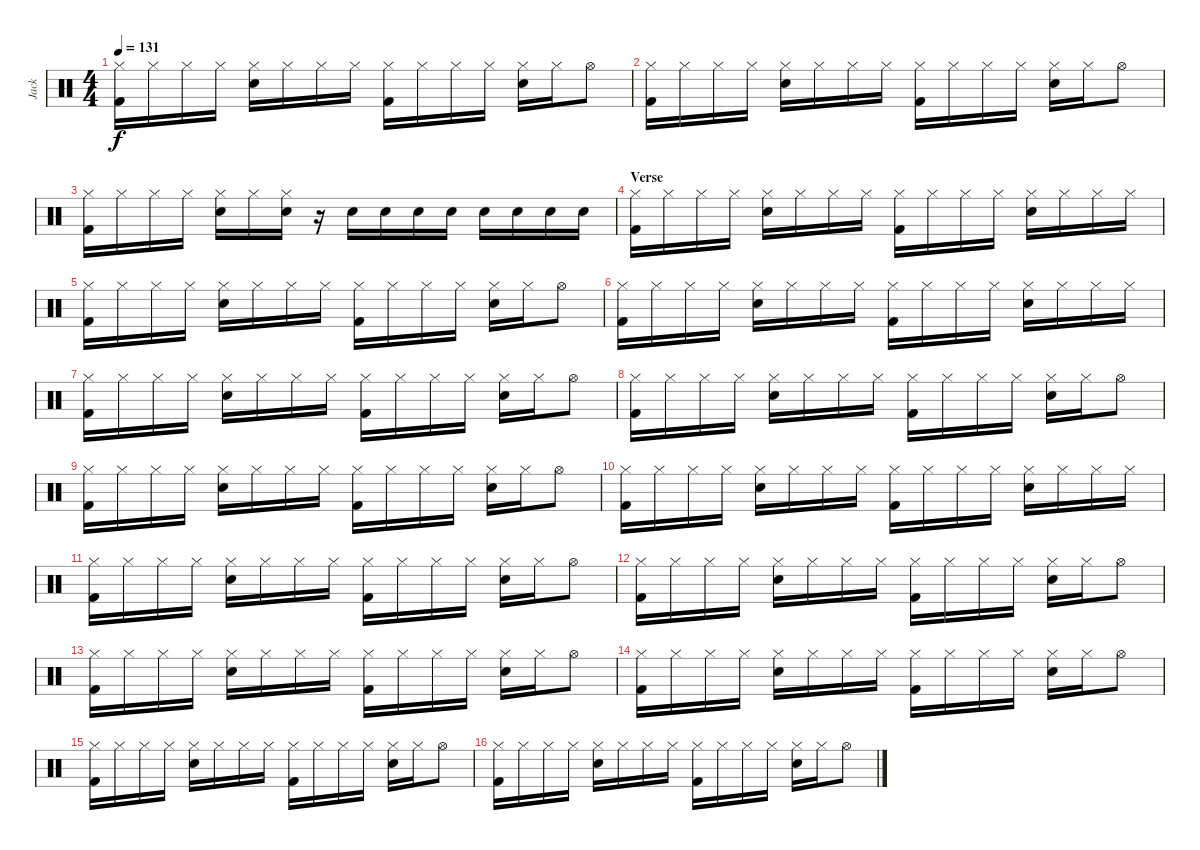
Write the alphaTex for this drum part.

\track ("Jack" "Jack") {instrument percussion}
\staff {score}
\articulation defaults
\ts (4 4)
\tempo 131
\clef neutral
\ks c
("Hi-Hat (closed)" "Kick (hit) 2").16{dy f} "Hi-Hat (closed)".16 "Hi-Hat (closed)".16 "Hi-Hat (closed)".16 ("Hi-Hat (closed)" "Electric Snare (hit)").16 "Hi-Hat (closed)".16 "Hi-Hat (closed)".16 "Hi-Hat (closed)".16 ("Hi-Hat (closed)" "Kick (hit) 2").16 "Hi-Hat (closed)".16 "Hi-Hat (closed)".16 "Hi-Hat (closed)".16 ("Hi-Hat (closed)" "Electric Snare (hit)").16 "Hi-Hat (closed)".16 "Hi-Hat (open)".8 |
("Hi-Hat (closed)" "Kick (hit) 2").16 "Hi-Hat (closed)".16 "Hi-Hat (closed)".16 "Hi-Hat (closed)".16 ("Hi-Hat (closed)" "Electric Snare (hit)").16 "Hi-Hat (closed)".16 "Hi-Hat (closed)".16 "Hi-Hat (closed)".16 ("Hi-Hat (closed)" "Kick (hit) 2").16 "Hi-Hat (closed)".16 "Hi-Hat (closed)".16 "Hi-Hat (closed)".16 ("Hi-Hat (closed)" "Electric Snare (hit)").16 "Hi-Hat (closed)".16 "Hi-Hat (open)".8 |
("Hi-Hat (closed)" "Kick (hit) 2").16 "Hi-Hat (closed)".16 "Hi-Hat (closed)".16 "Hi-Hat (closed)".16 ("Hi-Hat (closed)" "Electric Snare (hit)").16 "Hi-Hat (closed)".16 ("Hi-Hat (closed)" "Electric Snare (hit)").16 r.16 "Electric Snare (hit)".16 "Electric Snare (hit)".16 "Electric Snare (hit)".16 "Electric Snare (hit)".16 "Electric Snare (hit)".16 "Electric Snare (hit)".16 "Electric Snare (hit)".16 "Electric Snare (hit)".16 |
\section ("" "Verse")
("Hi-Hat (closed)" "Kick (hit) 2").16 "Hi-Hat (closed)".16 "Hi-Hat (closed)".16 "Hi-Hat (closed)".16 ("Hi-Hat (closed)" "Electric Snare (hit)").16 "Hi-Hat (closed)".16 "Hi-Hat (closed)".16 "Hi-Hat (closed)".16 ("Hi-Hat (closed)" "Kick (hit) 2").16 "Hi-Hat (closed)".16 "Hi-Hat (closed)".16 "Hi-Hat (closed)".16 ("Hi-Hat (closed)" "Electric Snare (hit)").16 "Hi-Hat (closed)".16 "Hi-Hat (closed)".16 "Hi-Hat (closed)".16 |
("Hi-Hat (closed)" "Kick (hit) 2").16 "Hi-Hat (closed)".16 "Hi-Hat (closed)".16 "Hi-Hat (closed)".16 ("Hi-Hat (closed)" "Electric Snare (hit)").16 "Hi-Hat (closed)".16 "Hi-Hat (closed)".16 "Hi-Hat (closed)".16 ("Hi-Hat (closed)" "Kick (hit) 2").16 "Hi-Hat (closed)".16 "Hi-Hat (closed)".16 "Hi-Hat (closed)".16 ("Hi-Hat (closed)" "Electric Snare (hit)").16 "Hi-Hat (closed)".16 "Hi-Hat (open)".8 |
("Hi-Hat (closed)" "Kick (hit) 2").16 "Hi-Hat (closed)".16 "Hi-Hat (closed)".16 "Hi-Hat (closed)".16 ("Hi-Hat (closed)" "Electric Snare (hit)").16 "Hi-Hat (closed)".16 "Hi-Hat (closed)".16 "Hi-Hat (closed)".16 ("Hi-Hat (closed)" "Kick (hit) 2").16 "Hi-Hat (closed)".16 "Hi-Hat (closed)".16 "Hi-Hat (closed)".16 ("Hi-Hat (closed)" "Electric Snare (hit)").16 "Hi-Hat (closed)".16 "Hi-Hat (closed)".16 "Hi-Hat (closed)".16 |
("Hi-Hat (closed)" "Kick (hit) 2").16 "Hi-Hat (closed)".16 "Hi-Hat (closed)".16 "Hi-Hat (closed)".16 ("Hi-Hat (closed)" "Electric Snare (hit)").16 "Hi-Hat (closed)".16 "Hi-Hat (closed)".16 "Hi-Hat (closed)".16 ("Hi-Hat (closed)" "Kick (hit) 2").16 "Hi-Hat (closed)".16 "Hi-Hat (closed)".16 "Hi-Hat (closed)".16 ("Hi-Hat (closed)" "Electric Snare (hit)").16 "Hi-Hat (closed)".16 "Hi-Hat (open)".8 |
("Hi-Hat (closed)" "Kick (hit) 2").16 "Hi-Hat (closed)".16 "Hi-Hat (closed)".16 "Hi-Hat (closed)".16 ("Hi-Hat (closed)" "Electric Snare (hit)").16 "Hi-Hat (closed)".16 "Hi-Hat (closed)".16 "Hi-Hat (closed)".16 ("Hi-Hat (closed)" "Kick (hit) 2").16 "Hi-Hat (closed)".16 "Hi-Hat (closed)".16 "Hi-Hat (closed)".16 ("Hi-Hat (closed)" "Electric Snare (hit)").16 "Hi-Hat (closed)".16 "Hi-Hat (open)".8 |
("Hi-Hat (closed)" "Kick (hit) 2").16 "Hi-Hat (closed)".16 "Hi-Hat (closed)".16 "Hi-Hat (closed)".16 ("Hi-Hat (closed)" "Electric Snare (hit)").16 "Hi-Hat (closed)".16 "Hi-Hat (closed)".16 "Hi-Hat (closed)".16 ("Hi-Hat (closed)" "Kick (hit) 2").16 "Hi-Hat (closed)".16 "Hi-Hat (closed)".16 "Hi-Hat (closed)".16 ("Hi-Hat (closed)" "Electric Snare (hit)").16 "Hi-Hat (closed)".16 "Hi-Hat (open)".8 |
("Hi-Hat (closed)" "Kick (hit) 2").16 "Hi-Hat (closed)".16 "Hi-Hat (closed)".16 "Hi-Hat (closed)".16 ("Hi-Hat (closed)" "Electric Snare (hit)").16 "Hi-Hat (closed)".16 "Hi-Hat (closed)".16 "Hi-Hat (closed)".16 ("Hi-Hat (closed)" "Kick (hit) 2").16 "Hi-Hat (closed)".16 "Hi-Hat (closed)".16 "Hi-Hat (closed)".16 ("Hi-Hat (closed)" "Electric Snare (hit)").16 "Hi-Hat (closed)".16 "Hi-Hat (closed)".16 "Hi-Hat (closed)".16 |
("Hi-Hat (closed)" "Kick (hit) 2").16 "Hi-Hat (closed)".16 "Hi-Hat (closed)".16 "Hi-Hat (closed)".16 ("Hi-Hat (closed)" "Electric Snare (hit)").16 "Hi-Hat (closed)".16 "Hi-Hat (closed)".16 "Hi-Hat (closed)".16 ("Hi-Hat (closed)" "Kick (hit) 2").16 "Hi-Hat (closed)".16 "Hi-Hat (closed)".16 "Hi-Hat (closed)".16 ("Hi-Hat (closed)" "Electric Snare (hit)").16 "Hi-Hat (closed)".16 "Hi-Hat (open)".8 |
("Hi-Hat (closed)" "Kick (hit) 2").16 "Hi-Hat (closed)".16 "Hi-Hat (closed)".16 "Hi-Hat (closed)".16 ("Hi-Hat (closed)" "Electric Snare (hit)").16 "Hi-Hat (closed)".16 "Hi-Hat (closed)".16 "Hi-Hat (closed)".16 ("Hi-Hat (closed)" "Kick (hit) 2").16 "Hi-Hat (closed)".16 "Hi-Hat (closed)".16 "Hi-Hat (closed)".16 ("Hi-Hat (closed)" "Electric Snare (hit)").16 "Hi-Hat (closed)".16 "Hi-Hat (open)".8 |
("Hi-Hat (closed)" "Kick (hit) 2").16 "Hi-Hat (closed)".16 "Hi-Hat (closed)".16 "Hi-Hat (closed)".16 ("Hi-Hat (closed)" "Electric Snare (hit)").16 "Hi-Hat (closed)".16 "Hi-Hat (closed)".16 "Hi-Hat (closed)".16 ("Hi-Hat (closed)" "Kick (hit) 2").16 "Hi-Hat (closed)".16 "Hi-Hat (closed)".16 "Hi-Hat (closed)".16 ("Hi-Hat (closed)" "Electric Snare (hit)").16 "Hi-Hat (closed)".16 "Hi-Hat (open)".8 |
("Hi-Hat (closed)" "Kick (hit) 2").16 "Hi-Hat (closed)".16 "Hi-Hat (closed)".16 "Hi-Hat (closed)".16 ("Hi-Hat (closed)" "Electric Snare (hit)").16 "Hi-Hat (closed)".16 "Hi-Hat (closed)".16 "Hi-Hat (closed)".16 ("Hi-Hat (closed)" "Kick (hit) 2").16 "Hi-Hat (closed)".16 "Hi-Hat (closed)".16 "Hi-Hat (closed)".16 ("Hi-Hat (closed)" "Electric Snare (hit)").16 "Hi-Hat (closed)".16 "Hi-Hat (open)".8 |
("Hi-Hat (closed)" "Kick (hit) 2").16 "Hi-Hat (closed)".16 "Hi-Hat (closed)".16 "Hi-Hat (closed)".16 ("Hi-Hat (closed)" "Electric Snare (hit)").16 "Hi-Hat (closed)".16 "Hi-Hat (closed)".16 "Hi-Hat (closed)".16 ("Hi-Hat (closed)" "Kick (hit) 2").16 "Hi-Hat (closed)".16 "Hi-Hat (closed)".16 "Hi-Hat (closed)".16 ("Hi-Hat (closed)" "Electric Snare (hit)").16 "Hi-Hat (closed)".16 "Hi-Hat (open)".8 |
("Hi-Hat (closed)" "Kick (hit) 2").16 "Hi-Hat (closed)".16 "Hi-Hat (closed)".16 "Hi-Hat (closed)".16 ("Hi-Hat (closed)" "Electric Snare (hit)").16 "Hi-Hat (closed)".16 "Hi-Hat (closed)".16 "Hi-Hat (closed)".16 ("Hi-Hat (closed)" "Kick (hit) 2").16 "Hi-Hat (closed)".16 "Hi-Hat (closed)".16 "Hi-Hat (closed)".16 ("Hi-Hat (closed)" "Electric Snare (hit)").16 "Hi-Hat (closed)".16 "Hi-Hat (open)".8
